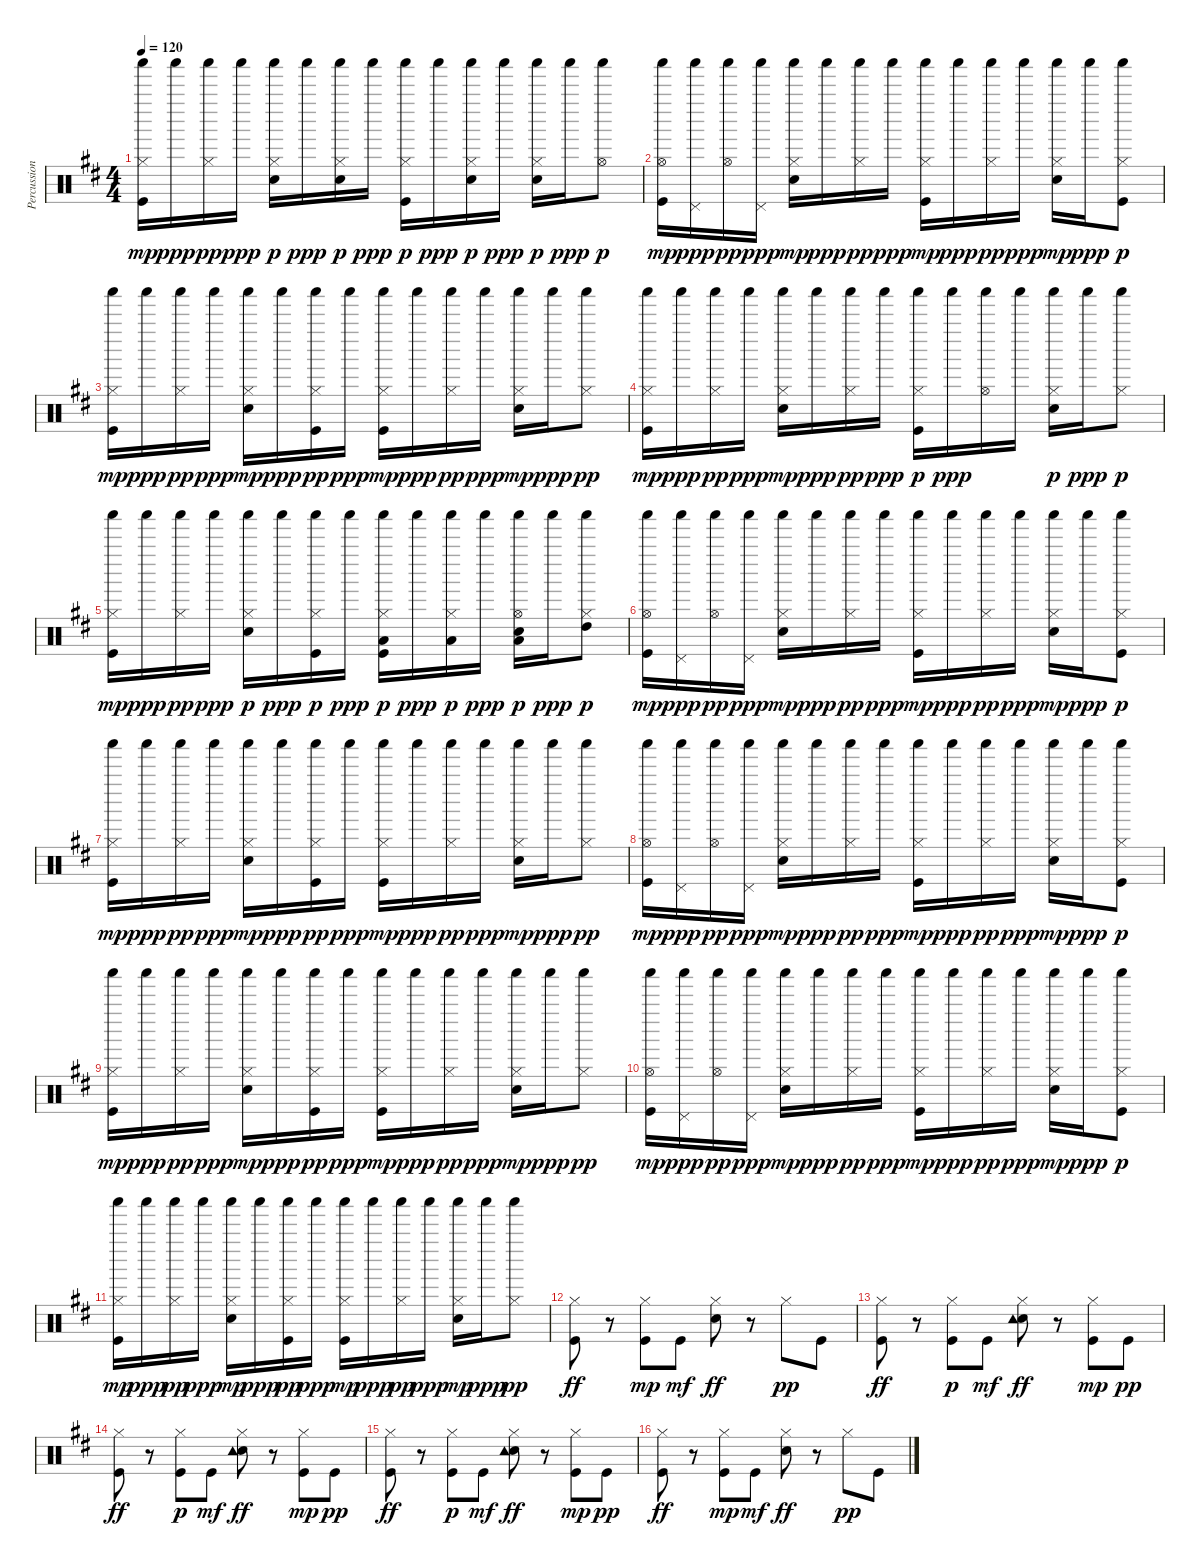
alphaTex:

\track ("Percussion" "Percussion") {instrument percussion}
\staff {score}
\articulation defaults
\ts (4 4)
\tempo 120
\clef neutral
\ks d
("Kick (hit)" "Hi-Hat (closed)" "Shaker (hit)").16{dy mp} "Shaker (hit)".16{dy ppp} ("Hi-Hat (closed)" "Shaker (hit)").16{dy pp} "Shaker (hit)".16{dy ppp} ("Electric Snare (hit)" "Hi-Hat (closed)" "Shaker (hit)").16{dy p} "Shaker (hit)".16{dy ppp} ("Electric Snare (hit)" "Hi-Hat (closed)" "Shaker (hit)").16{dy p} "Shaker (hit)".16{dy ppp} ("Kick (hit)" "Hi-Hat (closed)" "Shaker (hit)").16{dy p} "Shaker (hit)".16{dy ppp} ("Electric Snare (hit)" "Hi-Hat (closed)" "Shaker (hit)").16{dy p} "Shaker (hit)".16{dy ppp} ("Electric Snare (hit)" "Hi-Hat (closed)" "Shaker (hit)").16{dy p} "Shaker (hit)".16{dy ppp} ("Hi-Hat (open)" "Shaker (hit)").8{dy p} |
("Kick (hit)" "Hi-Hat (open)" "Shaker (hit)").16{dy mp} ("Pedal Hi-Hat (hit)" "Shaker (hit)").16{dy ppp} ("Hi-Hat (open)" "Shaker (hit)").16{dy pp} ("Pedal Hi-Hat (hit)" "Shaker (hit)").16{dy ppp} ("Electric Snare (hit)" "Hi-Hat (closed)" "Shaker (hit)").16{dy mp} "Shaker (hit)".16{dy ppp} ("Hi-Hat (closed)" "Shaker (hit)").16{dy pp} "Shaker (hit)".16{dy ppp} ("Kick (hit)" "Hi-Hat (closed)" "Shaker (hit)").16{dy mp} "Shaker (hit)".16{dy ppp} ("Hi-Hat (closed)" "Shaker (hit)").16{dy pp} "Shaker (hit)".16{dy ppp} ("Electric Snare (hit)" "Hi-Hat (closed)" "Shaker (hit)").16{dy mp} "Shaker (hit)".16{dy ppp} ("Kick (hit)" "Hi-Hat (closed)" "Shaker (hit)").8{dy p} |
("Kick (hit)" "Hi-Hat (closed)" "Shaker (hit)").16{dy mp} "Shaker (hit)".16{dy ppp} ("Hi-Hat (closed)" "Shaker (hit)").16{dy pp} "Shaker (hit)".16{dy ppp} ("Electric Snare (hit)" "Hi-Hat (closed)" "Shaker (hit)").16{dy mp} "Shaker (hit)".16{dy ppp} ("Kick (hit)" "Hi-Hat (closed)" "Shaker (hit)").16{dy pp} "Shaker (hit)".16{dy ppp} ("Kick (hit)" "Hi-Hat (closed)" "Shaker (hit)").16{dy mp} "Shaker (hit)".16{dy ppp} ("Hi-Hat (closed)" "Shaker (hit)").16{dy pp} "Shaker (hit)".16{dy ppp} ("Electric Snare (hit)" "Hi-Hat (closed)" "Shaker (hit)").16{dy mp} "Shaker (hit)".16{dy ppp} ("Hi-Hat (closed)" "Shaker (hit)").8{dy pp} |
("Kick (hit)" "Hi-Hat (closed)" "Shaker (hit)").16{dy mp} "Shaker (hit)".16{dy ppp} ("Hi-Hat (closed)" "Shaker (hit)").16{dy pp} "Shaker (hit)".16{dy ppp} ("Electric Snare (hit)" "Hi-Hat (closed)" "Shaker (hit)").16{dy mp} "Shaker (hit)".16{dy ppp} ("Hi-Hat (closed)" "Shaker (hit)").16{dy pp} "Shaker (hit)".16{dy ppp} ("Kick (hit)" "Hi-Hat (closed)" "Shaker (hit)").16{dy p} "Shaker (hit)".16{dy ppp} ("Hi-Hat (open)" "Shaker (hit)").16 "Shaker (hit)".16 ("Electric Snare (hit)" "Hi-Hat (closed)" "Shaker (hit)").16{dy p} "Shaker (hit)".16{dy ppp} ("Hi-Hat (closed)" "Shaker (hit)").8{dy p} |
("Kick (hit)" "Hi-Hat (closed)" "Shaker (hit)").16{dy mp} "Shaker (hit)".16{dy ppp} ("Hi-Hat (closed)" "Shaker (hit)").16{dy pp} "Shaker (hit)".16{dy ppp} ("Electric Snare (hit)" "Hi-Hat (closed)" "Shaker (hit)").16{dy p} "Shaker (hit)".16{dy ppp} ("Kick (hit)" "Hi-Hat (closed)" "Shaker (hit)").16{dy p} "Shaker (hit)".16{dy ppp} ("Kick (hit)" "Hi-Hat (closed)" "Low Tom (hit)" "Shaker (hit)").16{dy p} "Shaker (hit)".16{dy ppp} ("Hi-Hat (closed)" "Low Tom (hit)" "Shaker (hit)").16{dy p} "Shaker (hit)".16{dy ppp} ("Electric Snare (hit)" "Low Tom (hit)" "Hi-Hat (open)" "Shaker (hit)").16{dy p} "Shaker (hit)".16{dy ppp} ("Hi-Hat (closed)" "High Tom (hit)" "Shaker (hit)").8{dy p} |
("Kick (hit)" "Hi-Hat (open)" "Shaker (hit)").16{dy mp} ("Pedal Hi-Hat (hit)" "Shaker (hit)").16{dy ppp} ("Hi-Hat (open)" "Shaker (hit)").16{dy pp} ("Pedal Hi-Hat (hit)" "Shaker (hit)").16{dy ppp} ("Electric Snare (hit)" "Hi-Hat (closed)" "Shaker (hit)").16{dy mp} "Shaker (hit)".16{dy ppp} ("Hi-Hat (closed)" "Shaker (hit)").16{dy pp} "Shaker (hit)".16{dy ppp} ("Kick (hit)" "Hi-Hat (closed)" "Shaker (hit)").16{dy mp} "Shaker (hit)".16{dy ppp} ("Hi-Hat (closed)" "Shaker (hit)").16{dy pp} "Shaker (hit)".16{dy ppp} ("Electric Snare (hit)" "Hi-Hat (closed)" "Shaker (hit)").16{dy mp} "Shaker (hit)".16{dy ppp} ("Kick (hit)" "Hi-Hat (closed)" "Shaker (hit)").8{dy p} |
("Kick (hit)" "Hi-Hat (closed)" "Shaker (hit)").16{dy mp} "Shaker (hit)".16{dy ppp} ("Hi-Hat (closed)" "Shaker (hit)").16{dy pp} "Shaker (hit)".16{dy ppp} ("Electric Snare (hit)" "Hi-Hat (closed)" "Shaker (hit)").16{dy mp} "Shaker (hit)".16{dy ppp} ("Kick (hit)" "Hi-Hat (closed)" "Shaker (hit)").16{dy pp} "Shaker (hit)".16{dy ppp} ("Kick (hit)" "Hi-Hat (closed)" "Shaker (hit)").16{dy mp} "Shaker (hit)".16{dy ppp} ("Hi-Hat (closed)" "Shaker (hit)").16{dy pp} "Shaker (hit)".16{dy ppp} ("Electric Snare (hit)" "Hi-Hat (closed)" "Shaker (hit)").16{dy mp} "Shaker (hit)".16{dy ppp} ("Hi-Hat (closed)" "Shaker (hit)").8{dy pp} |
("Kick (hit)" "Hi-Hat (open)" "Shaker (hit)").16{dy mp} ("Pedal Hi-Hat (hit)" "Shaker (hit)").16{dy ppp} ("Hi-Hat (open)" "Shaker (hit)").16{dy pp} ("Pedal Hi-Hat (hit)" "Shaker (hit)").16{dy ppp} ("Electric Snare (hit)" "Hi-Hat (closed)" "Shaker (hit)").16{dy mp} "Shaker (hit)".16{dy ppp} ("Hi-Hat (closed)" "Shaker (hit)").16{dy pp} "Shaker (hit)".16{dy ppp} ("Kick (hit)" "Hi-Hat (closed)" "Shaker (hit)").16{dy mp} "Shaker (hit)".16{dy ppp} ("Hi-Hat (closed)" "Shaker (hit)").16{dy pp} "Shaker (hit)".16{dy ppp} ("Electric Snare (hit)" "Hi-Hat (closed)" "Shaker (hit)").16{dy mp} "Shaker (hit)".16{dy ppp} ("Kick (hit)" "Hi-Hat (closed)" "Shaker (hit)").8{dy p} |
("Kick (hit)" "Hi-Hat (closed)" "Shaker (hit)").16{dy mp} "Shaker (hit)".16{dy ppp} ("Hi-Hat (closed)" "Shaker (hit)").16{dy pp} "Shaker (hit)".16{dy ppp} ("Electric Snare (hit)" "Hi-Hat (closed)" "Shaker (hit)").16{dy mp} "Shaker (hit)".16{dy ppp} ("Kick (hit)" "Hi-Hat (closed)" "Shaker (hit)").16{dy pp} "Shaker (hit)".16{dy ppp} ("Kick (hit)" "Hi-Hat (closed)" "Shaker (hit)").16{dy mp} "Shaker (hit)".16{dy ppp} ("Hi-Hat (closed)" "Shaker (hit)").16{dy pp} "Shaker (hit)".16{dy ppp} ("Electric Snare (hit)" "Hi-Hat (closed)" "Shaker (hit)").16{dy mp} "Shaker (hit)".16{dy ppp} ("Hi-Hat (closed)" "Shaker (hit)").8{dy pp} |
("Kick (hit)" "Hi-Hat (open)" "Shaker (hit)").16{dy mp} ("Pedal Hi-Hat (hit)" "Shaker (hit)").16{dy ppp} ("Hi-Hat (open)" "Shaker (hit)").16{dy pp} ("Pedal Hi-Hat (hit)" "Shaker (hit)").16{dy ppp} ("Electric Snare (hit)" "Hi-Hat (closed)" "Shaker (hit)").16{dy mp} "Shaker (hit)".16{dy ppp} ("Hi-Hat (closed)" "Shaker (hit)").16{dy pp} "Shaker (hit)".16{dy ppp} ("Kick (hit)" "Hi-Hat (closed)" "Shaker (hit)").16{dy mp} "Shaker (hit)".16{dy ppp} ("Hi-Hat (closed)" "Shaker (hit)").16{dy pp} "Shaker (hit)".16{dy ppp} ("Electric Snare (hit)" "Hi-Hat (closed)" "Shaker (hit)").16{dy mp} "Shaker (hit)".16{dy ppp} ("Kick (hit)" "Hi-Hat (closed)" "Shaker (hit)").8{dy p} |
("Kick (hit)" "Hi-Hat (closed)" "Shaker (hit)").16{dy mp} "Shaker (hit)".16{dy ppp} ("Hi-Hat (closed)" "Shaker (hit)").16{dy pp} "Shaker (hit)".16{dy ppp} ("Electric Snare (hit)" "Hi-Hat (closed)" "Shaker (hit)").16{dy mp} "Shaker (hit)".16{dy ppp} ("Kick (hit)" "Hi-Hat (closed)" "Shaker (hit)").16{dy pp} "Shaker (hit)".16{dy ppp} ("Kick (hit)" "Hi-Hat (closed)" "Shaker (hit)").16{dy mp} "Shaker (hit)".16{dy ppp} ("Hi-Hat (closed)" "Shaker (hit)").16{dy pp} "Shaker (hit)".16{dy ppp} ("Electric Snare (hit)" "Hi-Hat (closed)" "Shaker (hit)").16{dy mp} "Shaker (hit)".16{dy ppp} ("Hi-Hat (closed)" "Shaker (hit)").8{dy pp} |
("Kick (hit)" "Hi-Hat (closed)").8{dy ff} r.8 ("Kick (hit)" "Hi-Hat (closed)").8{dy mp} "Kick (hit)".8{dy mf} ("Electric Snare (hit)" "Hi-Hat (closed)").8{dy ff} r.8 "Hi-Hat (closed)".8{dy pp} "Kick (hit)".8 |
("Kick (hit)" "Hi-Hat (closed)").8{dy ff} r.8 ("Kick (hit)" "Hi-Hat (closed)").8{dy p} "Kick (hit)".8{dy mf} ("Electric Snare (hit)" "Hi-Hat (closed)" "Tambourine (hit)").8{dy ff} r.8 ("Kick (hit)" "Hi-Hat (closed)").8{dy mp} "Kick (hit)".8{dy pp} |
("Kick (hit)" "Hi-Hat (closed)").8{dy ff} r.8 ("Kick (hit)" "Hi-Hat (closed)").8{dy p} "Kick (hit)".8{dy mf} ("Electric Snare (hit)" "Hi-Hat (closed)" "Tambourine (hit)").8{dy ff} r.8 ("Kick (hit)" "Hi-Hat (closed)").8{dy mp} "Kick (hit)".8{dy pp} |
("Kick (hit)" "Hi-Hat (closed)").8{dy ff} r.8 ("Kick (hit)" "Hi-Hat (closed)").8{dy p} "Kick (hit)".8{dy mf} ("Electric Snare (hit)" "Hi-Hat (closed)" "Tambourine (hit)").8{dy ff} r.8 ("Kick (hit)" "Hi-Hat (closed)").8{dy mp} "Kick (hit)".8{dy pp} |
("Kick (hit)" "Hi-Hat (closed)").8{dy ff} r.8 ("Kick (hit)" "Hi-Hat (closed)").8{dy mp} "Kick (hit)".8{dy mf} ("Electric Snare (hit)" "Hi-Hat (closed)").8{dy ff} r.8 "Hi-Hat (closed)".8{dy pp} "Kick (hit)".8
